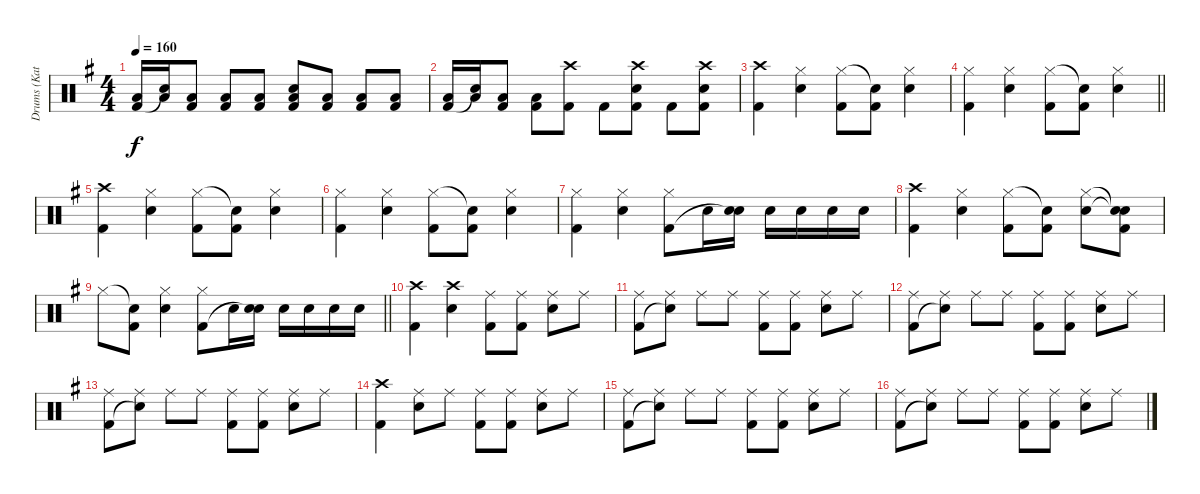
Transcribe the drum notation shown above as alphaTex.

\track ("Drums (Katsuji)" "Drums (Kat") {instrument percussion}
\staff {score}
\articulation defaults
\ts (4 4)
\tempo 160
\clef neutral
\ks g
("Low Tom (hit)" "Kick (hit) 2").16{dy f} ("Low Tom (hit)" "Snare (hit)"{t}).16 ("Low Tom (hit)" "Kick (hit) 2").8 ("Low Tom (hit)" "Kick (hit) 2").8 ("Low Tom (hit)" "Kick (hit) 2").8 ("Snare (hit) 2" "Low Tom (hit)" "Kick (hit) 2").8 ("Low Tom (hit)" "Kick (hit) 2").8 ("Low Tom (hit)" "Kick (hit) 2").8 ("Low Tom (hit)" "Kick (hit) 2").8 |
("Low Tom (hit)" "Kick (hit) 2").16 ("Low Tom (hit)" "Snare (hit)"{t}).16 ("Low Tom (hit)" "Kick (hit) 2").8 ("Low Tom (hit)" "Kick (hit) 2").8 ("Crash high (hit)" "Kick (hit) 2").8 "Kick (hit) 2".8 ("Crash high (hit)" "Snare (hit) 2" "Kick (hit) 2").8 "Kick (hit) 2".8 ("Crash high (hit)" "Snare (hit) 2" "Kick (hit) 2").8 |
("Crash high (hit)" "Kick (hit) 2").4 ("Hi-Hat (closed)" "Snare (hit) 2").4 ("Hi-Hat (closed)" "Kick (hit) 2").8 ("Snare (hit)"{t} "Kick (hit) 2").8 ("Hi-Hat (closed)" "Snare (hit) 2").4 |
\barLineRight lightlight
("Hi-Hat (closed)" "Kick (hit) 2").4 ("Hi-Hat (closed)" "Snare (hit) 2").4 ("Hi-Hat (closed)" "Kick (hit) 2").8 ("Snare (hit)"{t} "Kick (hit) 2").8 ("Hi-Hat (closed)" "Snare (hit) 2").4 |
("Crash high (hit)" "Kick (hit) 2").4 ("Hi-Hat (closed)" "Snare (hit) 2").4 ("Hi-Hat (closed)" "Kick (hit) 2").8 ("Snare (hit)"{t} "Kick (hit) 2").8 ("Hi-Hat (closed)" "Snare (hit) 2").4 |
("Hi-Hat (closed)" "Kick (hit) 2").4 ("Hi-Hat (closed)" "Snare (hit) 2").4 ("Hi-Hat (closed)" "Kick (hit) 2").8 ("Snare (hit)"{t} "Kick (hit) 2").8 ("Hi-Hat (closed)" "Snare (hit) 2").4 |
("Hi-Hat (closed)" "Kick (hit) 2").4 ("Hi-Hat (closed)" "Snare (hit) 2").4 ("Hi-Hat (closed)" "Kick (hit) 2").8 "Snare (hit) 2".16 ("Snare (hit) 2" "Snare (hit)"{t}).16 "Snare (hit) 2".16 "Snare (hit) 2".16 "Snare (hit) 2".16 "Snare (hit) 2".16 |
("Crash high (hit)" "Kick (hit) 2").4 ("Hi-Hat (closed)" "Snare (hit) 2").4 ("Hi-Hat (closed)" "Kick (hit) 2").8 ("Snare (hit)"{t} "Kick (hit) 2").8 ("Hi-Hat (closed)" "Snare (hit) 2").8 ("Snare (hit)"{t} "Snare (hit)"{t} "Kick (hit) 2").8 |
\barLineRight lightlight "Hi-Hat (closed)".8
("Snare (hit)"{t} "Kick (hit) 2").8 ("Hi-Hat (closed)" "Snare (hit) 2").4 ("Hi-Hat (closed)" "Kick (hit) 2").8 "Snare (hit) 2".16 ("Snare (hit) 2" "Snare (hit)"{t}).16 "Snare (hit) 2".16 "Snare (hit) 2".16 "Snare (hit) 2".16 "Snare (hit) 2".16 |
("Crash high (hit)" "Kick (hit) 2").4 ("Crash high (hit)" "Snare (hit) 2").4 ("Ride (middle)" "Kick (hit) 2").8 ("Ride (middle)" "Kick (hit) 2").8 ("Ride (middle)" "Snare (hit) 2").8 "Ride (middle)".8 |
("Ride (middle)" "Kick (hit) 2").8 ("Ride (middle)" "Snare (hit)"{t}).8 "Ride (middle)".8 "Ride (middle)".8 ("Ride (middle)" "Kick (hit) 2").8 ("Ride (middle)" "Kick (hit) 2").8 ("Ride (middle)" "Snare (hit) 2").8 "Ride (middle)".8 |
("Ride (middle)" "Kick (hit) 2").8 ("Ride (middle)" "Snare (hit)"{t}).8 "Ride (middle)".8 "Ride (middle)".8 ("Ride (middle)" "Kick (hit) 2").8 ("Ride (middle)" "Kick (hit) 2").8 ("Ride (middle)" "Snare (hit) 2").8 "Ride (middle)".8 |
("Ride (middle)" "Kick (hit) 2").8 ("Ride (middle)" "Snare (hit)"{t}).8 "Ride (middle)".8 "Ride (middle)".8 ("Ride (middle)" "Kick (hit) 2").8 ("Ride (middle)" "Kick (hit) 2").8 ("Ride (middle)" "Snare (hit) 2").8 "Ride (middle)".8 |
("Crash high (hit)" "Kick (hit) 2").4 ("Ride (middle)" "Snare (hit) 2").8 "Ride (middle)".8 ("Ride (middle)" "Kick (hit) 2").8 ("Ride (middle)" "Kick (hit) 2").8 ("Ride (middle)" "Snare (hit) 2").8 "Ride (middle)".8 |
("Ride (middle)" "Kick (hit) 2").8 ("Ride (middle)" "Snare (hit)"{t}).8 "Ride (middle)".8 "Ride (middle)".8 ("Ride (middle)" "Kick (hit) 2").8 ("Ride (middle)" "Kick (hit) 2").8 ("Ride (middle)" "Snare (hit) 2").8 "Ride (middle)".8 |
("Ride (middle)" "Kick (hit) 2").8 ("Ride (middle)" "Snare (hit)"{t}).8 "Ride (middle)".8 "Ride (middle)".8 ("Ride (middle)" "Kick (hit) 2").8 ("Ride (middle)" "Kick (hit) 2").8 ("Ride (middle)" "Snare (hit) 2").8 "Ride (middle)".8
